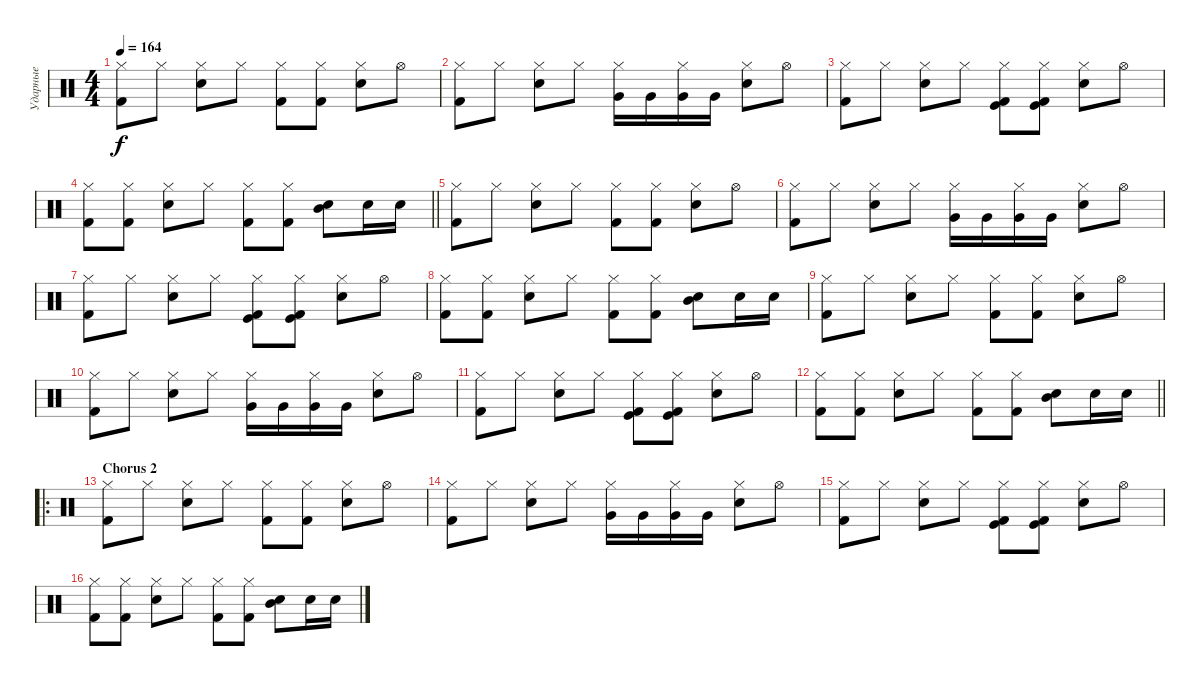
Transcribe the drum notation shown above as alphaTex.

\track ("Ударные" "Ударные") {instrument percussion}
\staff {score}
\articulation defaults
\ts (4 4)
\tempo 164
\clef neutral
\ks c
("Hi-Hat (closed)" "Kick (hit) 2").8{dy f} "Hi-Hat (closed)".8 ("Hi-Hat (closed)" "Snare (hit) 2").8 "Hi-Hat (closed)".8 ("Hi-Hat (closed)" "Kick (hit) 2").8 ("Hi-Hat (closed)" "Kick (hit) 2").8 ("Hi-Hat (closed)" "Snare (hit) 2").8 "Hi-Hat (open)".8 |
("Hi-Hat (closed)" "Kick (hit) 2").8 "Hi-Hat (closed)".8 ("Hi-Hat (closed)" "Snare (hit) 2").8 "Hi-Hat (closed)".8 ("Hi-Hat (closed)" "Very Low Tom (hit)").16 "Very Low Tom (hit)".16 ("Hi-Hat (closed)" "Very Low Tom (hit)").16 "Very Low Tom (hit)".16 ("Hi-Hat (closed)" "Snare (hit) 2").8 "Hi-Hat (open)".8 |
("Hi-Hat (closed)" "Kick (hit) 2").8 "Hi-Hat (closed)".8 ("Hi-Hat (closed)" "Snare (hit) 2").8 "Hi-Hat (closed)".8 ("Hi-Hat (closed)" "Kick (hit)" "Kick (hit) 2").8 ("Hi-Hat (closed)" "Kick (hit)" "Kick (hit) 2").8 ("Hi-Hat (closed)" "Snare (hit) 2").8 "Hi-Hat (open)".8 |
\barLineRight lightlight
("Hi-Hat (closed)" "Kick (hit) 2").8 ("Hi-Hat (closed)" "Kick (hit) 2").8 ("Hi-Hat (closed)" "Snare (hit) 2").8 "Hi-Hat (closed)".8 ("Hi-Hat (closed)" "Kick (hit) 2").8 ("Hi-Hat (closed)" "Kick (hit) 2").8 ("Snare (hit) 2" "Mid Tom (hit)").8 "Snare (hit) 2".16 "Snare (hit) 2".16 |
("Hi-Hat (closed)" "Kick (hit) 2").8 "Hi-Hat (closed)".8 ("Hi-Hat (closed)" "Snare (hit) 2").8 "Hi-Hat (closed)".8 ("Hi-Hat (closed)" "Kick (hit) 2").8 ("Hi-Hat (closed)" "Kick (hit) 2").8 ("Hi-Hat (closed)" "Snare (hit) 2").8 "Hi-Hat (open)".8 |
("Hi-Hat (closed)" "Kick (hit) 2").8 "Hi-Hat (closed)".8 ("Hi-Hat (closed)" "Snare (hit) 2").8 "Hi-Hat (closed)".8 ("Hi-Hat (closed)" "Very Low Tom (hit)").16 "Very Low Tom (hit)".16 ("Hi-Hat (closed)" "Very Low Tom (hit)").16 "Very Low Tom (hit)".16 ("Hi-Hat (closed)" "Snare (hit) 2").8 "Hi-Hat (open)".8 |
("Hi-Hat (closed)" "Kick (hit) 2").8 "Hi-Hat (closed)".8 ("Hi-Hat (closed)" "Snare (hit) 2").8 "Hi-Hat (closed)".8 ("Hi-Hat (closed)" "Kick (hit)" "Kick (hit) 2").8 ("Hi-Hat (closed)" "Kick (hit)" "Kick (hit) 2").8 ("Hi-Hat (closed)" "Snare (hit) 2").8 "Hi-Hat (open)".8 |
("Hi-Hat (closed)" "Kick (hit) 2").8 ("Hi-Hat (closed)" "Kick (hit) 2").8 ("Hi-Hat (closed)" "Snare (hit) 2").8 "Hi-Hat (closed)".8 ("Hi-Hat (closed)" "Kick (hit) 2").8 ("Hi-Hat (closed)" "Kick (hit) 2").8 ("Snare (hit) 2" "Mid Tom (hit)").8 "Snare (hit) 2".16 "Snare (hit) 2".16 |
("Hi-Hat (closed)" "Kick (hit) 2").8 "Hi-Hat (closed)".8 ("Hi-Hat (closed)" "Snare (hit) 2").8 "Hi-Hat (closed)".8 ("Hi-Hat (closed)" "Kick (hit) 2").8 ("Hi-Hat (closed)" "Kick (hit) 2").8 ("Hi-Hat (closed)" "Snare (hit) 2").8 "Hi-Hat (open)".8 |
("Hi-Hat (closed)" "Kick (hit) 2").8 "Hi-Hat (closed)".8 ("Hi-Hat (closed)" "Snare (hit) 2").8 "Hi-Hat (closed)".8 ("Hi-Hat (closed)" "Very Low Tom (hit)").16 "Very Low Tom (hit)".16 ("Hi-Hat (closed)" "Very Low Tom (hit)").16 "Very Low Tom (hit)".16 ("Hi-Hat (closed)" "Snare (hit) 2").8 "Hi-Hat (open)".8 |
("Hi-Hat (closed)" "Kick (hit) 2").8 "Hi-Hat (closed)".8 ("Hi-Hat (closed)" "Snare (hit) 2").8 "Hi-Hat (closed)".8 ("Hi-Hat (closed)" "Kick (hit)" "Kick (hit) 2").8 ("Hi-Hat (closed)" "Kick (hit)" "Kick (hit) 2").8 ("Hi-Hat (closed)" "Snare (hit) 2").8 "Hi-Hat (open)".8 |
\barLineRight lightlight
("Hi-Hat (closed)" "Kick (hit) 2").8 ("Hi-Hat (closed)" "Kick (hit) 2").8 ("Hi-Hat (closed)" "Snare (hit) 2").8 "Hi-Hat (closed)".8 ("Hi-Hat (closed)" "Kick (hit) 2").8 ("Hi-Hat (closed)" "Kick (hit) 2").8 ("Snare (hit) 2" "Mid Tom (hit)").8 "Snare (hit) 2".16 "Snare (hit) 2".16 |
\ro
\section ("" "Chorus 2")
("Hi-Hat (closed)" "Kick (hit) 2").8 "Hi-Hat (closed)".8 ("Hi-Hat (closed)" "Snare (hit) 2").8 "Hi-Hat (closed)".8 ("Hi-Hat (closed)" "Kick (hit) 2").8 ("Hi-Hat (closed)" "Kick (hit) 2").8 ("Hi-Hat (closed)" "Snare (hit) 2").8 "Hi-Hat (open)".8 |
("Hi-Hat (closed)" "Kick (hit) 2").8 "Hi-Hat (closed)".8 ("Hi-Hat (closed)" "Snare (hit) 2").8 "Hi-Hat (closed)".8 ("Hi-Hat (closed)" "Very Low Tom (hit)").16 "Very Low Tom (hit)".16 ("Hi-Hat (closed)" "Very Low Tom (hit)").16 "Very Low Tom (hit)".16 ("Hi-Hat (closed)" "Snare (hit) 2").8 "Hi-Hat (open)".8 |
("Hi-Hat (closed)" "Kick (hit) 2").8 "Hi-Hat (closed)".8 ("Hi-Hat (closed)" "Snare (hit) 2").8 "Hi-Hat (closed)".8 ("Hi-Hat (closed)" "Kick (hit)" "Kick (hit) 2").8 ("Hi-Hat (closed)" "Kick (hit)" "Kick (hit) 2").8 ("Hi-Hat (closed)" "Snare (hit) 2").8 "Hi-Hat (open)".8 |
("Hi-Hat (closed)" "Kick (hit) 2").8 ("Hi-Hat (closed)" "Kick (hit) 2").8 ("Hi-Hat (closed)" "Snare (hit) 2").8 "Hi-Hat (closed)".8 ("Hi-Hat (closed)" "Kick (hit) 2").8 ("Hi-Hat (closed)" "Kick (hit) 2").8 ("Snare (hit) 2" "Mid Tom (hit)").8 "Snare (hit) 2".16 "Snare (hit) 2".16
